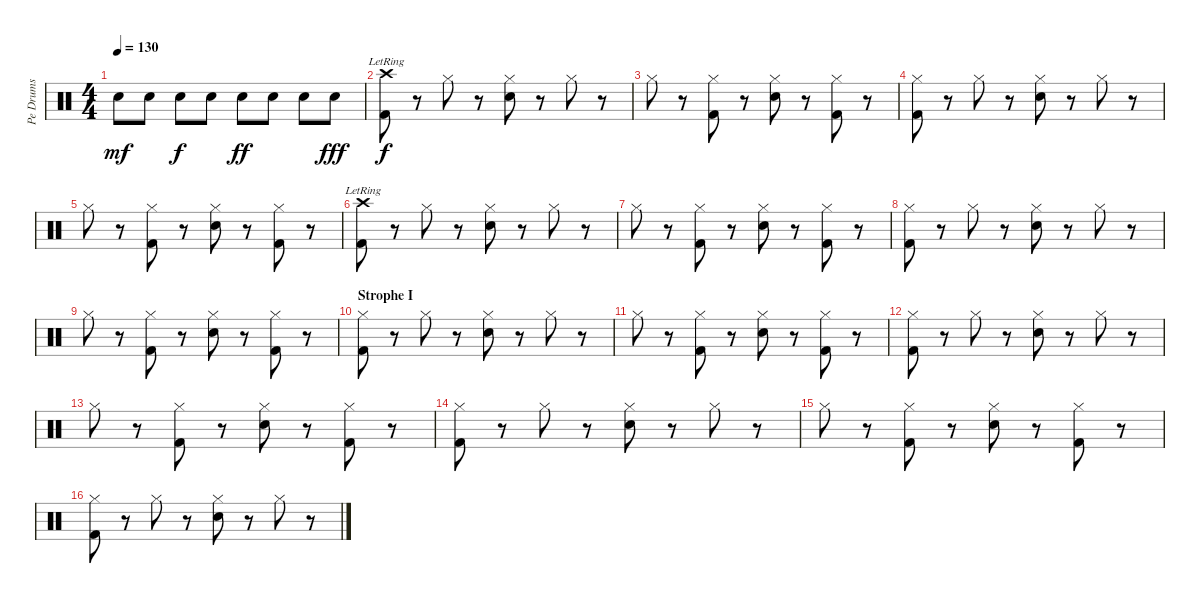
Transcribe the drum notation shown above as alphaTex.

\track ("Pe Drums" "Pe Drums") {instrument percussion}
\staff {score}
\articulation defaults
\ts (4 4)
\tempo 130
\clef neutral
\ks c "Electric Snare (hit)".8{dy mf} "Electric Snare (hit)".8 "Electric Snare (hit)".8{dy f} "Electric Snare (hit)".8 "Electric Snare (hit)".8{dy ff} "Electric Snare (hit)".8 "Electric Snare (hit)".8 "Electric Snare (hit)".8{dy fff}
|
("Crash high (hit)"{lr} "Kick (hit) 2").8{dy f} r.8 "Hi-Hat (closed)".8 r.8 ("Hi-Hat (closed)" "Electric Snare (hit)").8 r.8 "Hi-Hat (closed)".8 r.8 |
"Hi-Hat (closed)".8 r.8 ("Hi-Hat (closed)" "Kick (hit) 2").8 r.8 ("Hi-Hat (closed)" "Electric Snare (hit)").8 r.8 ("Hi-Hat (closed)" "Kick (hit) 2").8 r.8 |
("Hi-Hat (closed)" "Kick (hit) 2").8 r.8 "Hi-Hat (closed)".8 r.8 ("Hi-Hat (closed)" "Electric Snare (hit)").8 r.8 "Hi-Hat (closed)".8 r.8 |
"Hi-Hat (closed)".8 r.8 ("Hi-Hat (closed)" "Kick (hit) 2").8 r.8 ("Hi-Hat (closed)" "Electric Snare (hit)").8 r.8 ("Hi-Hat (closed)" "Kick (hit) 2").8 r.8 |
("Crash high (hit)"{lr} "Kick (hit) 2").8 r.8 "Hi-Hat (closed)".8 r.8 ("Hi-Hat (closed)" "Electric Snare (hit)").8 r.8 "Hi-Hat (closed)".8 r.8 |
"Hi-Hat (closed)".8 r.8 ("Hi-Hat (closed)" "Kick (hit) 2").8 r.8 ("Hi-Hat (closed)" "Electric Snare (hit)").8 r.8 ("Hi-Hat (closed)" "Kick (hit) 2").8 r.8 |
("Hi-Hat (closed)" "Kick (hit) 2").8 r.8 "Hi-Hat (closed)".8 r.8 ("Hi-Hat (closed)" "Electric Snare (hit)").8 r.8 "Hi-Hat (closed)".8 r.8 |
"Hi-Hat (closed)".8 r.8 ("Hi-Hat (closed)" "Kick (hit) 2").8 r.8 ("Hi-Hat (closed)" "Electric Snare (hit)").8 r.8 ("Hi-Hat (closed)" "Kick (hit) 2").8 r.8 |
\section ("" "Strophe I")
("Hi-Hat (closed)" "Kick (hit) 2").8 r.8 "Hi-Hat (closed)".8 r.8 ("Hi-Hat (closed)" "Electric Snare (hit)").8 r.8 "Hi-Hat (closed)".8 r.8 |
"Hi-Hat (closed)".8 r.8 ("Hi-Hat (closed)" "Kick (hit) 2").8 r.8 ("Hi-Hat (closed)" "Electric Snare (hit)").8 r.8 ("Hi-Hat (closed)" "Kick (hit) 2").8 r.8 |
("Hi-Hat (closed)" "Kick (hit) 2").8 r.8 "Hi-Hat (closed)".8 r.8 ("Hi-Hat (closed)" "Electric Snare (hit)").8 r.8 "Hi-Hat (closed)".8 r.8 |
"Hi-Hat (closed)".8 r.8 ("Hi-Hat (closed)" "Kick (hit) 2").8 r.8 ("Hi-Hat (closed)" "Electric Snare (hit)").8 r.8 ("Hi-Hat (closed)" "Kick (hit) 2").8 r.8 |
("Hi-Hat (closed)" "Kick (hit) 2").8 r.8 "Hi-Hat (closed)".8 r.8 ("Hi-Hat (closed)" "Electric Snare (hit)").8 r.8 "Hi-Hat (closed)".8 r.8 |
"Hi-Hat (closed)".8 r.8 ("Hi-Hat (closed)" "Kick (hit) 2").8 r.8 ("Hi-Hat (closed)" "Electric Snare (hit)").8 r.8 ("Hi-Hat (closed)" "Kick (hit) 2").8 r.8 |
("Hi-Hat (closed)" "Kick (hit) 2").8 r.8 "Hi-Hat (closed)".8 r.8 ("Hi-Hat (closed)" "Electric Snare (hit)").8 r.8 "Hi-Hat (closed)".8 r.8
